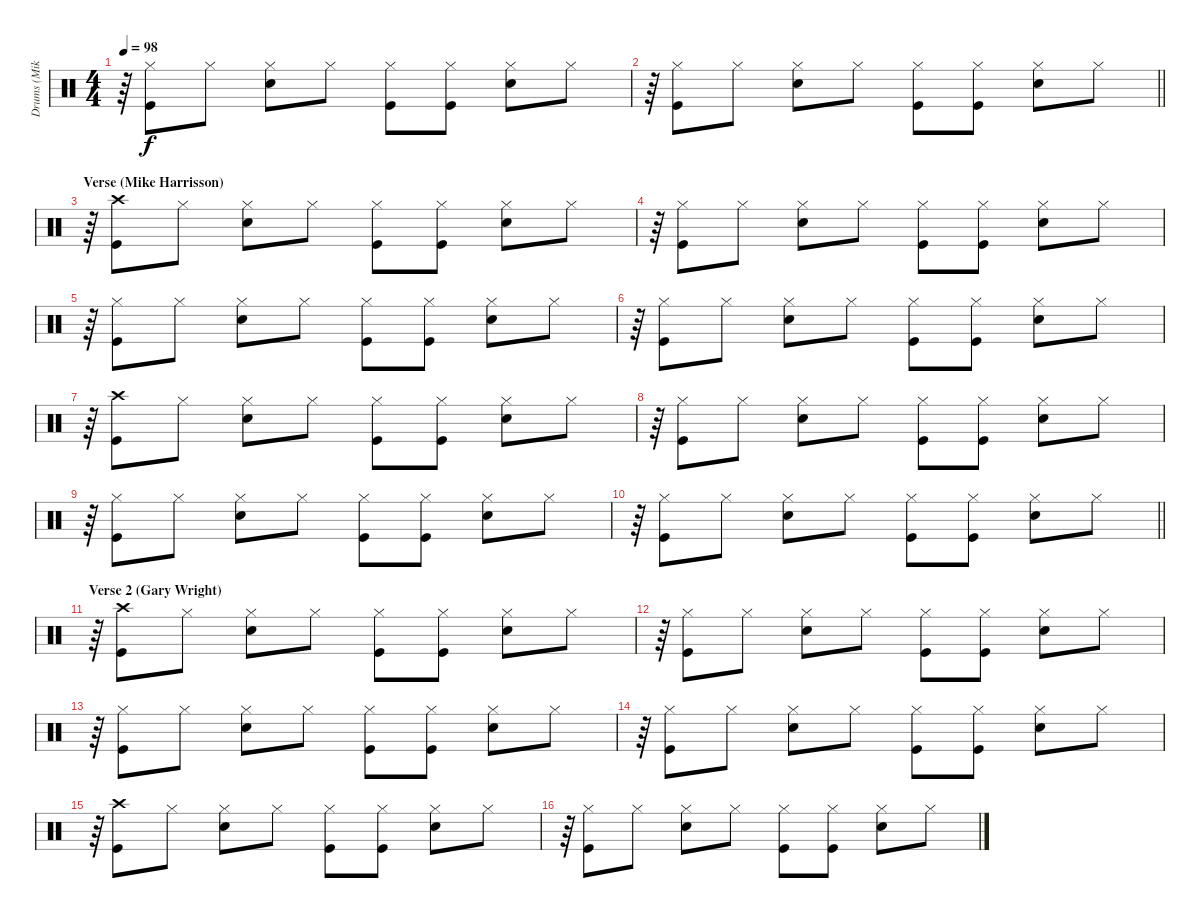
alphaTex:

\track ("Drums (Mike Kellie)" "Drums (Mik") {instrument percussion}
\staff {score}
\articulation defaults
\ts (4 4)
\tempo 98
\clef neutral
\ks c
r.64{dy f} ("Hi-Hat (closed)" "Kick (hit)").8 "Hi-Hat (closed)".8 ("Hi-Hat (closed)" "Electric Snare (hit)").8 "Hi-Hat (closed)".8 ("Hi-Hat (closed)" "Kick (hit)").8 ("Hi-Hat (closed)" "Kick (hit)").8 ("Hi-Hat (closed)" "Electric Snare (hit)").8 "Hi-Hat (closed)".8 |
\barLineRight lightlight
r.64 ("Hi-Hat (closed)" "Kick (hit)").8 "Hi-Hat (closed)".8 ("Hi-Hat (closed)" "Electric Snare (hit)").8 "Hi-Hat (closed)".8 ("Hi-Hat (closed)" "Kick (hit)").8 ("Hi-Hat (closed)" "Kick (hit)").8 ("Hi-Hat (closed)" "Electric Snare (hit)").8 "Hi-Hat (closed)".8 |
\section ("" "Verse (Mike Harrisson)")
r.64 ("Crash high (hit)" "Kick (hit)").8 "Hi-Hat (closed)".8 ("Hi-Hat (closed)" "Electric Snare (hit)").8 "Hi-Hat (closed)".8 ("Hi-Hat (closed)" "Kick (hit)").8 ("Hi-Hat (closed)" "Kick (hit)").8 ("Hi-Hat (closed)" "Electric Snare (hit)").8 "Hi-Hat (closed)".8 |
r.64 ("Hi-Hat (closed)" "Kick (hit)").8 "Hi-Hat (closed)".8 ("Hi-Hat (closed)" "Electric Snare (hit)").8 "Hi-Hat (closed)".8 ("Hi-Hat (closed)" "Kick (hit)").8 ("Hi-Hat (closed)" "Kick (hit)").8 ("Hi-Hat (closed)" "Electric Snare (hit)").8 "Hi-Hat (closed)".8 |
r.64 ("Hi-Hat (closed)" "Kick (hit)").8 "Hi-Hat (closed)".8 ("Hi-Hat (closed)" "Electric Snare (hit)").8 "Hi-Hat (closed)".8 ("Hi-Hat (closed)" "Kick (hit)").8 ("Hi-Hat (closed)" "Kick (hit)").8 ("Hi-Hat (closed)" "Electric Snare (hit)").8 "Hi-Hat (closed)".8 |
r.64 ("Hi-Hat (closed)" "Kick (hit)").8 "Hi-Hat (closed)".8 ("Hi-Hat (closed)" "Electric Snare (hit)").8 "Hi-Hat (closed)".8 ("Hi-Hat (closed)" "Kick (hit)").8 ("Hi-Hat (closed)" "Kick (hit)").8 ("Hi-Hat (closed)" "Electric Snare (hit)").8 "Hi-Hat (closed)".8 |
r.64 ("Crash high (hit)" "Kick (hit)").8 "Hi-Hat (closed)".8 ("Hi-Hat (closed)" "Electric Snare (hit)").8 "Hi-Hat (closed)".8 ("Hi-Hat (closed)" "Kick (hit)").8 ("Hi-Hat (closed)" "Kick (hit)").8 ("Hi-Hat (closed)" "Electric Snare (hit)").8 "Hi-Hat (closed)".8 |
r.64 ("Hi-Hat (closed)" "Kick (hit)").8 "Hi-Hat (closed)".8 ("Hi-Hat (closed)" "Electric Snare (hit)").8 "Hi-Hat (closed)".8 ("Hi-Hat (closed)" "Kick (hit)").8 ("Hi-Hat (closed)" "Kick (hit)").8 ("Hi-Hat (closed)" "Electric Snare (hit)").8 "Hi-Hat (closed)".8 |
r.64 ("Hi-Hat (closed)" "Kick (hit)").8 "Hi-Hat (closed)".8 ("Hi-Hat (closed)" "Electric Snare (hit)").8 "Hi-Hat (closed)".8 ("Hi-Hat (closed)" "Kick (hit)").8 ("Hi-Hat (closed)" "Kick (hit)").8 ("Hi-Hat (closed)" "Electric Snare (hit)").8 "Hi-Hat (closed)".8 |
\barLineRight lightlight
r.64 ("Hi-Hat (closed)" "Kick (hit)").8 "Hi-Hat (closed)".8 ("Hi-Hat (closed)" "Electric Snare (hit)").8 "Hi-Hat (closed)".8 ("Hi-Hat (closed)" "Kick (hit)").8 ("Hi-Hat (closed)" "Kick (hit)").8 ("Hi-Hat (closed)" "Electric Snare (hit)").8 "Hi-Hat (closed)".8 |
\section ("" "Verse 2 (Gary Wright)")
r.64 ("Crash high (hit)" "Kick (hit)").8 "Hi-Hat (closed)".8 ("Hi-Hat (closed)" "Electric Snare (hit)").8 "Hi-Hat (closed)".8 ("Hi-Hat (closed)" "Kick (hit)").8 ("Hi-Hat (closed)" "Kick (hit)").8 ("Hi-Hat (closed)" "Electric Snare (hit)").8 "Hi-Hat (closed)".8 |
r.64 ("Hi-Hat (closed)" "Kick (hit)").8 "Hi-Hat (closed)".8 ("Hi-Hat (closed)" "Electric Snare (hit)").8 "Hi-Hat (closed)".8 ("Hi-Hat (closed)" "Kick (hit)").8 ("Hi-Hat (closed)" "Kick (hit)").8 ("Hi-Hat (closed)" "Electric Snare (hit)").8 "Hi-Hat (closed)".8 |
r.64 ("Hi-Hat (closed)" "Kick (hit)").8 "Hi-Hat (closed)".8 ("Hi-Hat (closed)" "Electric Snare (hit)").8 "Hi-Hat (closed)".8 ("Hi-Hat (closed)" "Kick (hit)").8 ("Hi-Hat (closed)" "Kick (hit)").8 ("Hi-Hat (closed)" "Electric Snare (hit)").8 "Hi-Hat (closed)".8 |
r.64 ("Hi-Hat (closed)" "Kick (hit)").8 "Hi-Hat (closed)".8 ("Hi-Hat (closed)" "Electric Snare (hit)").8 "Hi-Hat (closed)".8 ("Hi-Hat (closed)" "Kick (hit)").8 ("Hi-Hat (closed)" "Kick (hit)").8 ("Hi-Hat (closed)" "Electric Snare (hit)").8 "Hi-Hat (closed)".8 |
r.64 ("Crash high (hit)" "Kick (hit)").8 "Hi-Hat (closed)".8 ("Hi-Hat (closed)" "Electric Snare (hit)").8 "Hi-Hat (closed)".8 ("Hi-Hat (closed)" "Kick (hit)").8 ("Hi-Hat (closed)" "Kick (hit)").8 ("Hi-Hat (closed)" "Electric Snare (hit)").8 "Hi-Hat (closed)".8 |
r.64 ("Hi-Hat (closed)" "Kick (hit)").8 "Hi-Hat (closed)".8 ("Hi-Hat (closed)" "Electric Snare (hit)").8 "Hi-Hat (closed)".8 ("Hi-Hat (closed)" "Kick (hit)").8 ("Hi-Hat (closed)" "Kick (hit)").8 ("Hi-Hat (closed)" "Electric Snare (hit)").8 "Hi-Hat (closed)".8
